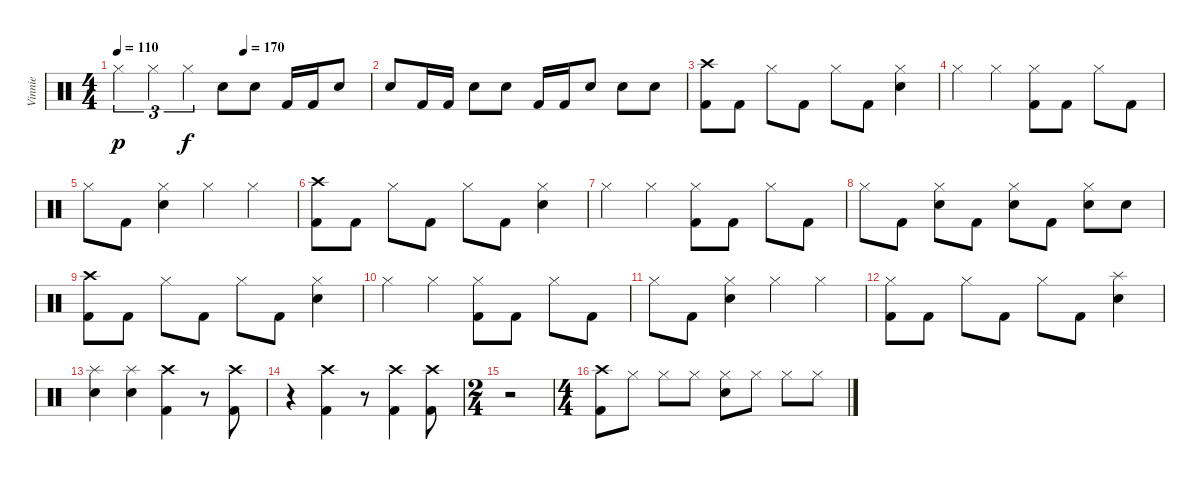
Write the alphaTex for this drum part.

\track ("Vinnie" "Vinnie") {instrument percussion}
\staff {score}
\articulation defaults
\ts (4 4)
\tempo 110
\tempo (170 0.5)
\clef neutral
\ks c "Hi-Hat (closed)".4{tu (3 2) dy p} "Hi-Hat (closed)".4{tu (3 2)} "Hi-Hat (closed)".4{tu (3 2) dy f} "Electric Snare (hit)".8 "Electric Snare (hit)".8 "Kick (hit) 2".16 "Kick (hit) 2".16 "Electric Snare (hit)".8
|
"Electric Snare (hit)".8 "Kick (hit) 2".16 "Kick (hit) 2".16 "Electric Snare (hit)".8 "Electric Snare (hit)".8 "Kick (hit) 2".16 "Kick (hit) 2".16 "Electric Snare (hit)".8 "Electric Snare (hit)".8 "Electric Snare (hit)".8 |
("Crash high (hit)" "Kick (hit) 2").8 "Kick (hit) 2".8 "Hi-Hat (closed)".8 "Kick (hit) 2".8 "Hi-Hat (closed)".8 "Kick (hit) 2".8 ("Hi-Hat (closed)" "Electric Snare (hit)").4 |
"Hi-Hat (closed)".4 "Hi-Hat (closed)".4 ("Hi-Hat (closed)" "Kick (hit) 2").8 "Kick (hit) 2".8 "Hi-Hat (closed)".8 "Kick (hit) 2".8 |
"Hi-Hat (closed)".8 "Kick (hit) 2".8 ("Hi-Hat (closed)" "Electric Snare (hit)").4 "Hi-Hat (closed)".4 "Hi-Hat (closed)".4 |
("Crash high (hit)" "Kick (hit) 2").8 "Kick (hit) 2".8 "Hi-Hat (closed)".8 "Kick (hit) 2".8 "Hi-Hat (closed)".8 "Kick (hit) 2".8 ("Hi-Hat (closed)" "Electric Snare (hit)").4 |
"Hi-Hat (closed)".4 "Hi-Hat (closed)".4 ("Hi-Hat (closed)" "Kick (hit) 2").8 "Kick (hit) 2".8 "Hi-Hat (closed)".8 "Kick (hit) 2".8 |
"Hi-Hat (closed)".8 "Kick (hit) 2".8 ("Hi-Hat (closed)" "Electric Snare (hit)").8 "Kick (hit) 2".8 ("Hi-Hat (closed)" "Electric Snare (hit)").8 "Kick (hit) 2".8 ("Hi-Hat (closed)" "Electric Snare (hit)").8 "Electric Snare (hit)".8 |
("Crash high (hit)" "Kick (hit) 2").8 "Kick (hit) 2".8 "Hi-Hat (closed)".8 "Kick (hit) 2".8 "Hi-Hat (closed)".8 "Kick (hit) 2".8 ("Hi-Hat (closed)" "Electric Snare (hit)").4 |
"Hi-Hat (closed)".4 "Hi-Hat (closed)".4 ("Hi-Hat (closed)" "Kick (hit) 2").8 "Kick (hit) 2".8 "Hi-Hat (closed)".8 "Kick (hit) 2".8 |
"Hi-Hat (closed)".8 "Kick (hit) 2".8 ("Hi-Hat (closed)" "Electric Snare (hit)").4 "Hi-Hat (closed)".4 "Hi-Hat (closed)".4 |
("Hi-Hat (closed)" "Kick (hit) 2").8 "Kick (hit) 2".8 "Hi-Hat (closed)".8 "Kick (hit) 2".8 "Hi-Hat (closed)".8 "Kick (hit) 2".8 ("Splash (hit)" "Electric Snare (hit)").4 |
("Splash (hit)" "Electric Snare (hit)").4 ("Splash (hit)" "Electric Snare (hit)").4 ("Crash high (hit)" "Kick (hit) 2").4 r.8 ("Crash high (hit)" "Kick (hit) 2").8 |
r.4 ("Crash high (hit)" "Kick (hit) 2").4 r.8 ("Crash high (hit)" "Kick (hit) 2").4 ("Crash high (hit)" "Kick (hit) 2").8 |
\ts (2 4)
r.2 |
\ts (4 4)
("Crash high (hit)" "Kick (hit) 2").8 "Hi-Hat (closed)".8 "Hi-Hat (closed)".8 "Hi-Hat (closed)".8 ("Hi-Hat (closed)" "Electric Snare (hit)").8 "Hi-Hat (closed)".8 "Hi-Hat (closed)".8 "Hi-Hat (closed)".8
